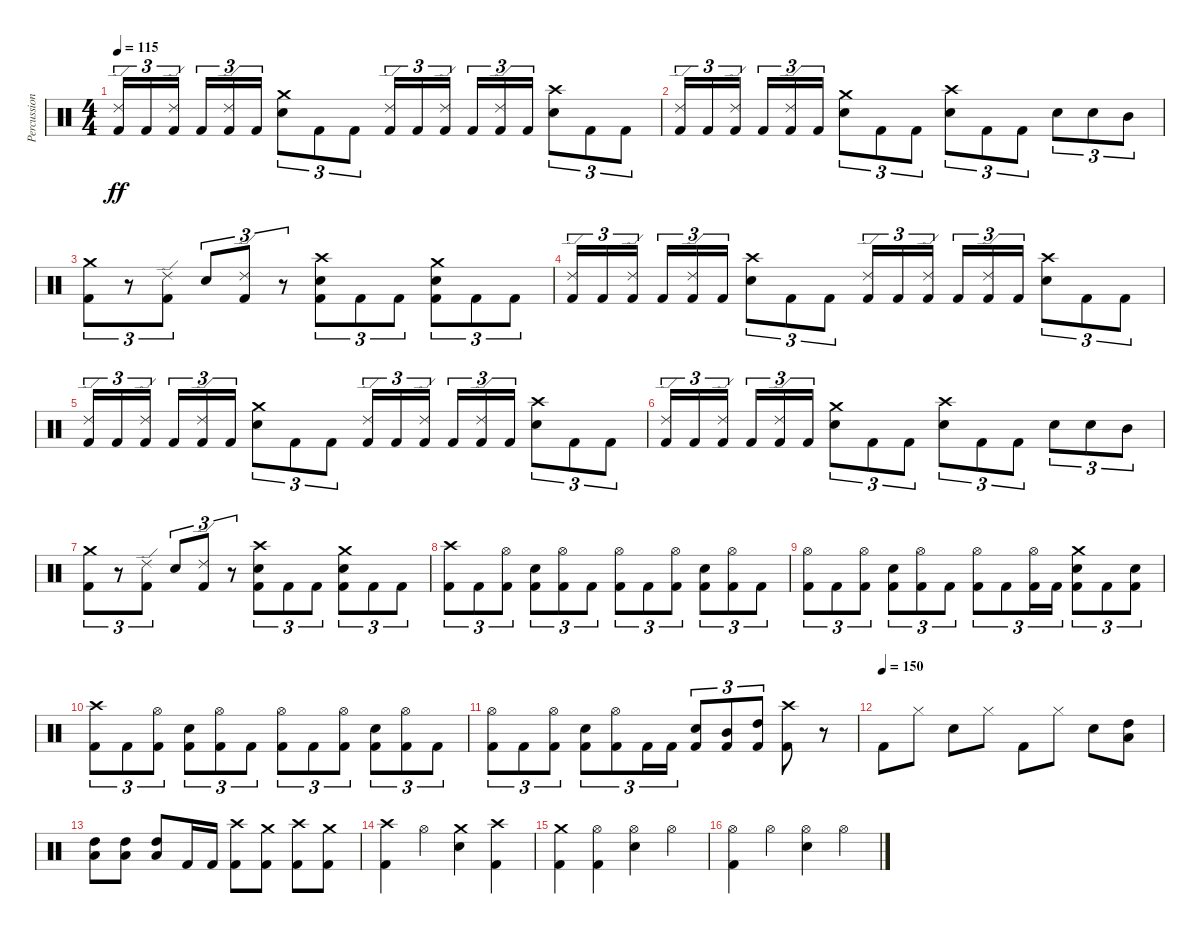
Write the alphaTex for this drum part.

\track ("Percussion" "Percussion") {instrument percussion}
\staff {score}
\articulation defaults
\ts (4 4)
\tempo 115
\clef neutral
\ks c
("Ride (edge) 2" "Kick (hit) 2").16{tu (3 2) dy ff} "Kick (hit) 2".16{tu (3 2)} ("Ride (edge) 2" "Kick (hit) 2").16{tu (3 2) beam splitsecondary} "Kick (hit) 2".16{tu (3 2)} ("Ride (edge) 2" "Kick (hit) 2").16{tu (3 2)} "Kick (hit) 2".16{tu (3 2)} ("Snare (hit) 2" "Crash medium (hit)").8{tu (3 2)} "Kick (hit) 2".8{tu (3 2)} "Kick (hit) 2".8{tu (3 2)} ("Ride (edge) 2" "Kick (hit) 2").16{tu (3 2)} "Kick (hit) 2".16{tu (3 2)} ("Ride (edge) 2" "Kick (hit) 2").16{tu (3 2) beam splitsecondary} "Kick (hit) 2".16{tu (3 2)} ("Ride (edge) 2" "Kick (hit) 2").16{tu (3 2)} "Kick (hit) 2".16{tu (3 2)} ("Crash high (hit)" "Snare (hit) 2").8{tu (3 2)} "Kick (hit) 2".8{tu (3 2)} "Kick (hit) 2".8{tu (3 2)} |
("Ride (edge) 2" "Kick (hit) 2").16{tu (3 2)} "Kick (hit) 2".16{tu (3 2)} ("Ride (edge) 2" "Kick (hit) 2").16{tu (3 2) beam splitsecondary} "Kick (hit) 2".16{tu (3 2)} ("Ride (edge) 2" "Kick (hit) 2").16{tu (3 2)} "Kick (hit) 2".16{tu (3 2)} ("Snare (hit) 2" "Crash medium (hit)").8{tu (3 2)} "Kick (hit) 2".8{tu (3 2)} "Kick (hit) 2".8{tu (3 2)} ("Crash high (hit)" "Snare (hit) 2").8{tu (3 2)} "Kick (hit) 2".8{tu (3 2)} "Kick (hit) 2".8{tu (3 2)} "Snare (hit) 2".8{tu (3 2)} "Snare (hit) 2".8{tu (3 2)} "Mid Tom (hit)".8{tu (3 2)} |
("Crash medium (hit)" "Kick (hit) 2").8{tu (3 2)} r.8{tu (3 2)} ("Ride (edge) 2" "Kick (hit) 2").8{tu (3 2)} "Snare (hit) 2".8{tu (3 2)} ("Ride (edge) 2" "Kick (hit) 2").8{tu (3 2)} r.8{tu (3 2)} ("Crash high (hit)" "Snare (hit) 2" "Kick (hit) 2").8{tu (3 2)} "Kick (hit) 2".8{tu (3 2)} "Kick (hit) 2".8{tu (3 2)} ("Crash medium (hit)" "Snare (hit) 2" "Kick (hit) 2").8{tu (3 2)} "Kick (hit) 2".8{tu (3 2)} "Kick (hit) 2".8{tu (3 2)} |
("Ride (edge) 2" "Kick (hit) 2").16{tu (3 2)} "Kick (hit) 2".16{tu (3 2)} ("Ride (edge) 2" "Kick (hit) 2").16{tu (3 2) beam splitsecondary} "Kick (hit) 2".16{tu (3 2)} ("Ride (edge) 2" "Kick (hit) 2").16{tu (3 2)} "Kick (hit) 2".16{tu (3 2)} ("Snare (hit) 2" "Crash high (hit)").8{tu (3 2)} "Kick (hit) 2".8{tu (3 2)} "Kick (hit) 2".8{tu (3 2)} ("Ride (edge) 2" "Kick (hit) 2").16{tu (3 2)} "Kick (hit) 2".16{tu (3 2)} ("Ride (edge) 2" "Kick (hit) 2").16{tu (3 2) beam splitsecondary} "Kick (hit) 2".16{tu (3 2)} ("Ride (edge) 2" "Kick (hit) 2").16{tu (3 2)} "Kick (hit) 2".16{tu (3 2)} ("Crash high (hit)" "Snare (hit) 2").8{tu (3 2)} "Kick (hit) 2".8{tu (3 2)} "Kick (hit) 2".8{tu (3 2)} |
("Ride (edge) 2" "Kick (hit) 2").16{tu (3 2)} "Kick (hit) 2".16{tu (3 2)} ("Ride (edge) 2" "Kick (hit) 2").16{tu (3 2) beam splitsecondary} "Kick (hit) 2".16{tu (3 2)} ("Ride (edge) 2" "Kick (hit) 2").16{tu (3 2)} "Kick (hit) 2".16{tu (3 2)} ("Snare (hit) 2" "Crash medium (hit)").8{tu (3 2)} "Kick (hit) 2".8{tu (3 2)} "Kick (hit) 2".8{tu (3 2)} ("Ride (edge) 2" "Kick (hit) 2").16{tu (3 2)} "Kick (hit) 2".16{tu (3 2)} ("Ride (edge) 2" "Kick (hit) 2").16{tu (3 2) beam splitsecondary} "Kick (hit) 2".16{tu (3 2)} ("Ride (edge) 2" "Kick (hit) 2").16{tu (3 2)} "Kick (hit) 2".16{tu (3 2)} ("Crash high (hit)" "Snare (hit) 2").8{tu (3 2)} "Kick (hit) 2".8{tu (3 2)} "Kick (hit) 2".8{tu (3 2)} |
("Ride (edge) 2" "Kick (hit) 2").16{tu (3 2)} "Kick (hit) 2".16{tu (3 2)} ("Ride (edge) 2" "Kick (hit) 2").16{tu (3 2) beam splitsecondary} "Kick (hit) 2".16{tu (3 2)} ("Ride (edge) 2" "Kick (hit) 2").16{tu (3 2)} "Kick (hit) 2".16{tu (3 2)} ("Snare (hit) 2" "Crash medium (hit)").8{tu (3 2)} "Kick (hit) 2".8{tu (3 2)} "Kick (hit) 2".8{tu (3 2)} ("Crash high (hit)" "Snare (hit) 2").8{tu (3 2)} "Kick (hit) 2".8{tu (3 2)} "Kick (hit) 2".8{tu (3 2)} "Snare (hit) 2".8{tu (3 2)} "Snare (hit) 2".8{tu (3 2)} "Mid Tom (hit)".8{tu (3 2)} |
("Crash medium (hit)" "Kick (hit) 2").8{tu (3 2)} r.8{tu (3 2)} ("Ride (edge) 2" "Kick (hit) 2").8{tu (3 2)} "Snare (hit) 2".8{tu (3 2)} ("Ride (edge) 2" "Kick (hit) 2").8{tu (3 2)} r.8{tu (3 2)} ("Crash high (hit)" "Snare (hit) 2" "Kick (hit) 2").8{tu (3 2)} "Kick (hit) 2".8{tu (3 2)} "Kick (hit) 2".8{tu (3 2)} ("Crash medium (hit)" "Snare (hit) 2" "Kick (hit) 2").8{tu (3 2)} "Kick (hit) 2".8{tu (3 2)} "Kick (hit) 2".8{tu (3 2)} |
("Crash high (hit)" "Kick (hit) 2").8{tu (3 2)} "Kick (hit) 2".8{tu (3 2)} ("Hi-Hat (open)" "Kick (hit) 2").8{tu (3 2)} ("Snare (hit) 2" "Kick (hit) 2").8{tu (3 2)} ("Hi-Hat (open)" "Kick (hit) 2").8{tu (3 2)} "Kick (hit) 2".8{tu (3 2)} ("Hi-Hat (open)" "Kick (hit) 2").8{tu (3 2)} "Kick (hit) 2".8{tu (3 2)} ("Hi-Hat (open)" "Kick (hit) 2").8{tu (3 2)} ("Snare (hit) 2" "Kick (hit) 2").8{tu (3 2)} ("Hi-Hat (open)" "Kick (hit) 2").8{tu (3 2)} "Kick (hit) 2".8{tu (3 2)} |
("Hi-Hat (open)" "Kick (hit) 2").8{tu (3 2)} "Kick (hit) 2".8{tu (3 2)} ("Hi-Hat (open)" "Kick (hit) 2").8{tu (3 2)} ("Snare (hit) 2" "Kick (hit) 2").8{tu (3 2)} ("Hi-Hat (open)" "Kick (hit) 2").8{tu (3 2)} "Kick (hit) 2".8{tu (3 2)} ("Hi-Hat (open)" "Kick (hit) 2").8{tu (3 2)} "Kick (hit) 2".8{tu (3 2)} ("Hi-Hat (open)" "Kick (hit) 2").16{tu (3 2)} "Kick (hit) 2".16{tu (3 2)} ("Crash medium (hit)" "Snare (hit) 2" "Kick (hit) 2").8{tu (3 2)} "Kick (hit) 2".8{tu (3 2)} ("Snare (hit) 2" "Kick (hit) 2").8{tu (3 2)} |
("Crash high (hit)" "Kick (hit) 2").8{tu (3 2)} "Kick (hit) 2".8{tu (3 2)} ("Hi-Hat (open)" "Kick (hit) 2").8{tu (3 2)} ("Snare (hit) 2" "Kick (hit) 2").8{tu (3 2)} ("Hi-Hat (open)" "Kick (hit) 2").8{tu (3 2)} "Kick (hit) 2".8{tu (3 2)} ("Hi-Hat (open)" "Kick (hit) 2").8{tu (3 2)} "Kick (hit) 2".8{tu (3 2)} ("Hi-Hat (open)" "Kick (hit) 2").8{tu (3 2)} ("Snare (hit) 2" "Kick (hit) 2").8{tu (3 2)} ("Hi-Hat (open)" "Kick (hit) 2").8{tu (3 2)} "Kick (hit) 2".8{tu (3 2)} |
("Hi-Hat (open)" "Kick (hit) 2").8{tu (3 2)} "Kick (hit) 2".8{tu (3 2)} ("Hi-Hat (open)" "Kick (hit) 2").8{tu (3 2)} ("Snare (hit) 2" "Kick (hit) 2").8{tu (3 2)} ("Hi-Hat (open)" "Kick (hit) 2").8{tu (3 2)} "Kick (hit) 2".16{tu (3 2)} "Kick (hit) 2".16{tu (3 2)} ("Snare (hit) 2" "Kick (hit) 2").8{tu (3 2)} ("Mid Tom (hit)" "Kick (hit) 2").8{tu (3 2)} ("High Tom (hit)" "Kick (hit) 2").8{tu (3 2)} ("Crash high (hit)" "Kick (hit) 2").8 r.8 |
\tempo (150)
"Kick (hit) 2".8 "Hi-Hat (closed)".8 "Electric Snare (hit)".8 "Hi-Hat (closed)".8 "Kick (hit) 2".8 "Hi-Hat (closed)".8 "Electric Snare (hit)".8 ("High Tom (hit)" "Low Tom (hit)").8 |
("High Tom (hit)" "Low Tom (hit)").8 ("High Tom (hit)" "Low Tom (hit)").8 ("High Tom (hit)" "Low Tom (hit)").8 "Kick (hit) 2".16 "Kick (hit) 2".16 ("Crash high (hit)" "Kick (hit) 2").8 ("Crash medium (hit)" "Kick (hit) 2").8 ("Crash high (hit)" "Kick (hit) 2").8 ("Crash medium (hit)" "Kick (hit) 2").8 |
("Crash high (hit)" "Kick (hit) 2").4 "Hi-Hat (open)".4 ("Crash medium (hit)" "Snare (hit) 2").4 ("Crash high (hit)" "Kick (hit) 2").4 |
("Crash medium (hit)" "Kick (hit) 2").4 ("Hi-Hat (open)" "Kick (hit) 2").4 ("Hi-Hat (open)" "Snare (hit) 2").4 "Hi-Hat (open)".4 |
("Hi-Hat (open)" "Kick (hit) 2").4 "Hi-Hat (open)".4 ("Hi-Hat (open)" "Snare (hit) 2").4 "Hi-Hat (open)".4
